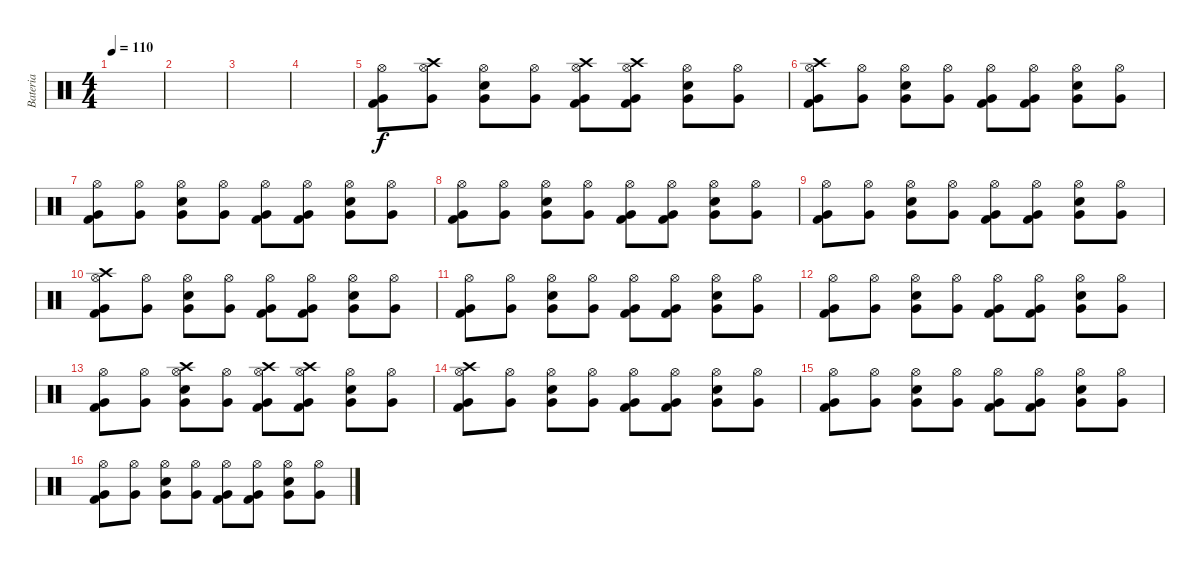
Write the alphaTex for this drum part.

\track ("Bateria" "Bateria") {instrument percussion}
\staff {score}
\articulation defaults
\ts (4 4)
\tempo 110
\clef neutral
\ks c
|
|
|
|
("Hi-Hat (open)" "Very Low Tom (hit)" "Kick (hit) 2").8 ("Crash high (hit)" "Hi-Hat (open)" "Very Low Tom (hit)").8 ("Electric Snare (hit)" "Hi-Hat (open)" "Very Low Tom (hit)").8 ("Hi-Hat (open)" "Very Low Tom (hit)").8 ("Crash high (hit)" "Hi-Hat (open)" "Very Low Tom (hit)" "Kick (hit) 2").8 ("Crash high (hit)" "Hi-Hat (open)" "Very Low Tom (hit)" "Kick (hit) 2").8 ("Electric Snare (hit)" "Hi-Hat (open)" "Very Low Tom (hit)").8 ("Hi-Hat (open)" "Very Low Tom (hit)").8 |
("Crash high (hit)" "Hi-Hat (open)" "Very Low Tom (hit)" "Kick (hit) 2").8 ("Hi-Hat (open)" "Very Low Tom (hit)").8 ("Electric Snare (hit)" "Hi-Hat (open)" "Very Low Tom (hit)").8 ("Hi-Hat (open)" "Very Low Tom (hit)").8 ("Hi-Hat (open)" "Very Low Tom (hit)" "Kick (hit) 2").8 ("Hi-Hat (open)" "Very Low Tom (hit)" "Kick (hit) 2").8 ("Electric Snare (hit)" "Hi-Hat (open)" "Very Low Tom (hit)").8 ("Hi-Hat (open)" "Very Low Tom (hit)").8 |
("Hi-Hat (open)" "Very Low Tom (hit)" "Kick (hit) 2").8 ("Hi-Hat (open)" "Very Low Tom (hit)").8 ("Electric Snare (hit)" "Hi-Hat (open)" "Very Low Tom (hit)").8 ("Hi-Hat (open)" "Very Low Tom (hit)").8 ("Hi-Hat (open)" "Very Low Tom (hit)" "Kick (hit) 2").8 ("Hi-Hat (open)" "Very Low Tom (hit)" "Kick (hit) 2").8 ("Electric Snare (hit)" "Hi-Hat (open)" "Very Low Tom (hit)").8 ("Hi-Hat (open)" "Very Low Tom (hit)").8 |
("Hi-Hat (open)" "Very Low Tom (hit)" "Kick (hit) 2").8 ("Hi-Hat (open)" "Very Low Tom (hit)").8 ("Electric Snare (hit)" "Hi-Hat (open)" "Very Low Tom (hit)").8 ("Hi-Hat (open)" "Very Low Tom (hit)").8 ("Hi-Hat (open)" "Very Low Tom (hit)" "Kick (hit) 2").8 ("Hi-Hat (open)" "Very Low Tom (hit)" "Kick (hit) 2").8 ("Electric Snare (hit)" "Hi-Hat (open)" "Very Low Tom (hit)").8 ("Hi-Hat (open)" "Very Low Tom (hit)").8 |
("Hi-Hat (open)" "Very Low Tom (hit)" "Kick (hit) 2").8 ("Hi-Hat (open)" "Very Low Tom (hit)").8 ("Electric Snare (hit)" "Hi-Hat (open)" "Very Low Tom (hit)").8 ("Hi-Hat (open)" "Very Low Tom (hit)").8 ("Hi-Hat (open)" "Very Low Tom (hit)" "Kick (hit) 2").8 ("Hi-Hat (open)" "Very Low Tom (hit)" "Kick (hit) 2").8 ("Electric Snare (hit)" "Hi-Hat (open)" "Very Low Tom (hit)").8 ("Hi-Hat (open)" "Very Low Tom (hit)").8 |
("Crash high (hit)" "Hi-Hat (open)" "Very Low Tom (hit)" "Kick (hit) 2").8 ("Hi-Hat (open)" "Very Low Tom (hit)").8 ("Electric Snare (hit)" "Hi-Hat (open)" "Very Low Tom (hit)").8 ("Hi-Hat (open)" "Very Low Tom (hit)").8 ("Hi-Hat (open)" "Very Low Tom (hit)" "Kick (hit) 2").8 ("Hi-Hat (open)" "Very Low Tom (hit)" "Kick (hit) 2").8 ("Electric Snare (hit)" "Hi-Hat (open)" "Very Low Tom (hit)").8 ("Hi-Hat (open)" "Very Low Tom (hit)").8 |
("Hi-Hat (open)" "Very Low Tom (hit)" "Kick (hit) 2").8 ("Hi-Hat (open)" "Very Low Tom (hit)").8 ("Electric Snare (hit)" "Hi-Hat (open)" "Very Low Tom (hit)").8 ("Hi-Hat (open)" "Very Low Tom (hit)").8 ("Hi-Hat (open)" "Very Low Tom (hit)" "Kick (hit) 2").8 ("Hi-Hat (open)" "Very Low Tom (hit)" "Kick (hit) 2").8 ("Electric Snare (hit)" "Hi-Hat (open)" "Very Low Tom (hit)").8 ("Hi-Hat (open)" "Very Low Tom (hit)").8 |
("Hi-Hat (open)" "Very Low Tom (hit)" "Kick (hit) 2").8 ("Hi-Hat (open)" "Very Low Tom (hit)").8 ("Electric Snare (hit)" "Hi-Hat (open)" "Very Low Tom (hit)").8 ("Hi-Hat (open)" "Very Low Tom (hit)").8 ("Hi-Hat (open)" "Very Low Tom (hit)" "Kick (hit) 2").8 ("Hi-Hat (open)" "Very Low Tom (hit)" "Kick (hit) 2").8 ("Electric Snare (hit)" "Hi-Hat (open)" "Very Low Tom (hit)").8 ("Hi-Hat (open)" "Very Low Tom (hit)").8 |
("Hi-Hat (open)" "Very Low Tom (hit)" "Kick (hit) 2").8 ("Hi-Hat (open)" "Very Low Tom (hit)").8 ("Crash high (hit)" "Electric Snare (hit)" "Hi-Hat (open)" "Very Low Tom (hit)").8 ("Hi-Hat (open)" "Very Low Tom (hit)").8 ("Crash high (hit)" "Hi-Hat (open)" "Very Low Tom (hit)" "Kick (hit) 2").8 ("Crash high (hit)" "Hi-Hat (open)" "Very Low Tom (hit)" "Kick (hit) 2").8 ("Electric Snare (hit)" "Hi-Hat (open)" "Very Low Tom (hit)").8 ("Hi-Hat (open)" "Very Low Tom (hit)").8 |
("Crash high (hit)" "Hi-Hat (open)" "Very Low Tom (hit)" "Kick (hit) 2").8 ("Hi-Hat (open)" "Very Low Tom (hit)").8 ("Electric Snare (hit)" "Hi-Hat (open)" "Very Low Tom (hit)").8 ("Hi-Hat (open)" "Very Low Tom (hit)").8 ("Hi-Hat (open)" "Very Low Tom (hit)" "Kick (hit) 2").8 ("Hi-Hat (open)" "Very Low Tom (hit)" "Kick (hit) 2").8 ("Electric Snare (hit)" "Hi-Hat (open)" "Very Low Tom (hit)").8 ("Hi-Hat (open)" "Very Low Tom (hit)").8 |
("Hi-Hat (open)" "Very Low Tom (hit)" "Kick (hit) 2").8 ("Hi-Hat (open)" "Very Low Tom (hit)").8 ("Electric Snare (hit)" "Hi-Hat (open)" "Very Low Tom (hit)").8 ("Hi-Hat (open)" "Very Low Tom (hit)").8 ("Hi-Hat (open)" "Very Low Tom (hit)" "Kick (hit) 2").8 ("Hi-Hat (open)" "Very Low Tom (hit)" "Kick (hit) 2").8 ("Electric Snare (hit)" "Hi-Hat (open)" "Very Low Tom (hit)").8 ("Hi-Hat (open)" "Very Low Tom (hit)").8 |
("Hi-Hat (open)" "Very Low Tom (hit)" "Kick (hit) 2").8 ("Hi-Hat (open)" "Very Low Tom (hit)").8 ("Electric Snare (hit)" "Hi-Hat (open)" "Very Low Tom (hit)").8 ("Hi-Hat (open)" "Very Low Tom (hit)").8 ("Hi-Hat (open)" "Very Low Tom (hit)" "Kick (hit) 2").8 ("Hi-Hat (open)" "Very Low Tom (hit)" "Kick (hit) 2").8 ("Electric Snare (hit)" "Hi-Hat (open)" "Very Low Tom (hit)").8 ("Hi-Hat (open)" "Very Low Tom (hit)").8
